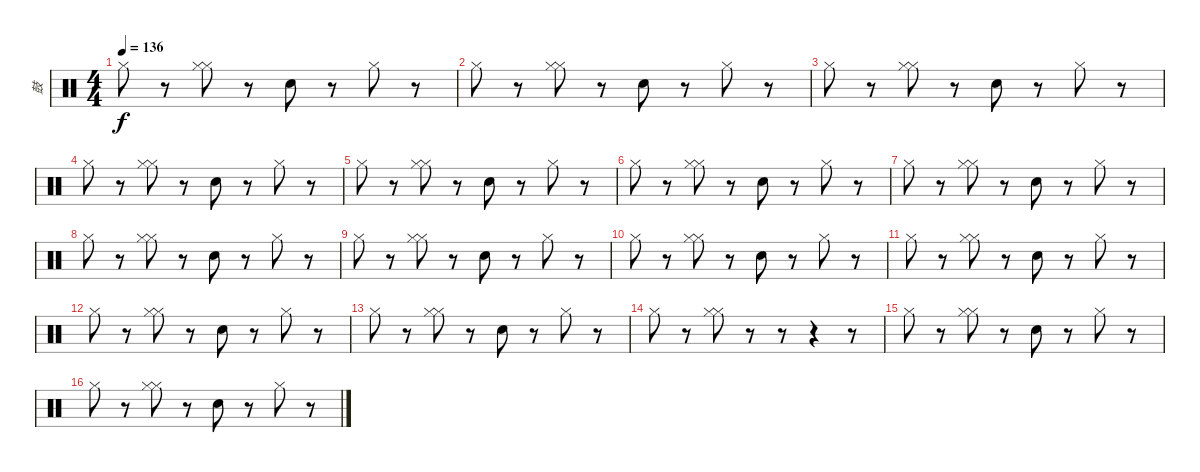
\track ("鼓" "鼓") {instrument percussion}
\staff {score}
\articulation defaults
\ts (4 4)
\tempo 136
\clef neutral
\ks c "Hi-Hat (closed)".8{dy f}
r.8 ("Hi-Hat (closed)" "Hi-Hat (closed)").8 r.8 "Snare (hit) 2".8 r.8 "Hi-Hat (closed)".8 r.8 |
"Hi-Hat (closed)".8 r.8 ("Hi-Hat (closed)" "Hi-Hat (closed)").8 r.8 "Snare (hit) 2".8 r.8 "Hi-Hat (closed)".8 r.8 |
"Hi-Hat (closed)".8 r.8 ("Hi-Hat (closed)" "Hi-Hat (closed)").8 r.8 "Snare (hit) 2".8 r.8 "Hi-Hat (closed)".8 r.8 |
"Hi-Hat (closed)".8 r.8 ("Hi-Hat (closed)" "Hi-Hat (closed)").8 r.8 "Snare (hit) 2".8 r.8 "Hi-Hat (closed)".8 r.8 |
"Hi-Hat (closed)".8 r.8 ("Hi-Hat (closed)" "Hi-Hat (closed)").8 r.8 "Snare (hit) 2".8 r.8 "Hi-Hat (closed)".8 r.8 |
"Hi-Hat (closed)".8 r.8 ("Hi-Hat (closed)" "Hi-Hat (closed)").8 r.8 "Snare (hit) 2".8 r.8 "Hi-Hat (closed)".8 r.8 |
"Hi-Hat (closed)".8 r.8 ("Hi-Hat (closed)" "Hi-Hat (closed)").8 r.8 "Snare (hit) 2".8 r.8 "Hi-Hat (closed)".8 r.8 |
"Hi-Hat (closed)".8 r.8 ("Hi-Hat (closed)" "Hi-Hat (closed)").8 r.8 "Snare (hit) 2".8 r.8 "Hi-Hat (closed)".8 r.8 |
"Hi-Hat (closed)".8 r.8 ("Hi-Hat (closed)" "Hi-Hat (closed)").8 r.8 "Snare (hit) 2".8 r.8 "Hi-Hat (closed)".8 r.8 |
"Hi-Hat (closed)".8 r.8 ("Hi-Hat (closed)" "Hi-Hat (closed)").8 r.8 "Snare (hit) 2".8 r.8 "Hi-Hat (closed)".8 r.8 |
"Hi-Hat (closed)".8 r.8 ("Hi-Hat (closed)" "Hi-Hat (closed)").8 r.8 "Snare (hit) 2".8 r.8 "Hi-Hat (closed)".8 r.8 |
"Hi-Hat (closed)".8 r.8 ("Hi-Hat (closed)" "Hi-Hat (closed)").8 r.8 "Snare (hit) 2".8 r.8 "Hi-Hat (closed)".8 r.8 |
"Hi-Hat (closed)".8 r.8 ("Hi-Hat (closed)" "Hi-Hat (closed)").8 r.8 "Snare (hit) 2".8 r.8 "Hi-Hat (closed)".8 r.8 |
"Hi-Hat (closed)".8 r.8 ("Hi-Hat (closed)" "Hi-Hat (closed)").8 r.8 r.8 r.4 r.8 |
"Hi-Hat (closed)".8 r.8 ("Hi-Hat (closed)" "Hi-Hat (closed)").8 r.8 "Snare (hit) 2".8 r.8 "Hi-Hat (closed)".8 r.8 |
"Hi-Hat (closed)".8 r.8 ("Hi-Hat (closed)" "Hi-Hat (closed)").8 r.8 "Snare (hit) 2".8 r.8 "Hi-Hat (closed)".8 r.8
